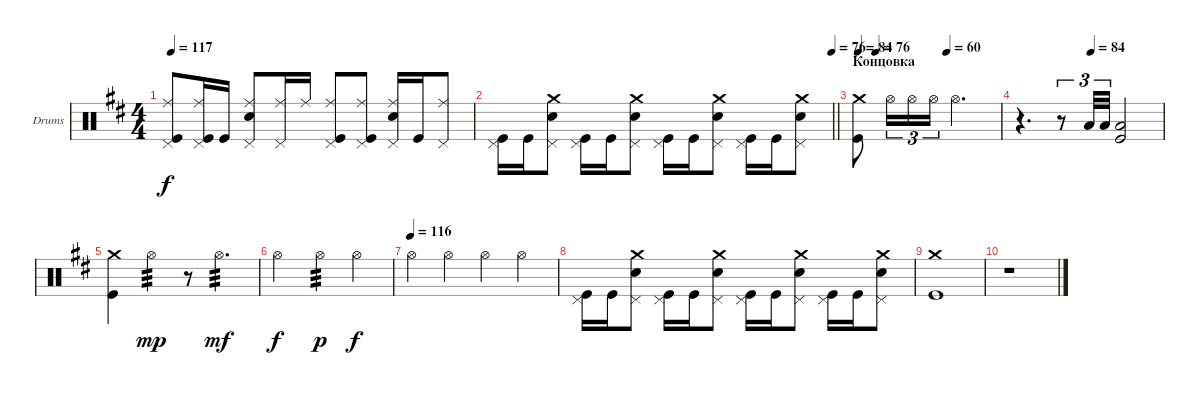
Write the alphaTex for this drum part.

\bracketExtendMode groupsimilarinstruments
\firstSystemTrackNameOrientation horizontal
\otherSystemsTrackNameOrientation horizontal
\track ("Барабаны" "Drums") {instrument percussion}
\staff {score}
\articulation defaults
\ts (4 4)
\tempo 117
\clef neutral
\ks d
("Kick (hit)" "Ride (middle)" "Pedal Hi-Hat (hit)").8{dy f} ("Kick (hit)" "Ride (middle)" "Pedal Hi-Hat (hit)").16 "Kick (hit)".16 ("Snare (hit) 2" "Ride (middle)" "Pedal Hi-Hat (hit)").8 ("Ride (middle)" "Pedal Hi-Hat (hit)").16 "Ride (middle)".16 ("Kick (hit)" "Ride (middle)" "Pedal Hi-Hat (hit)").8 ("Ride (middle)" "Kick (hit)" "Pedal Hi-Hat (hit)").8 ("Snare (hit) 2" "Ride (middle)" "Pedal Hi-Hat (hit)").16 "Kick (hit)".16 ("Ride (middle)" "Pedal Hi-Hat (hit)").8 |
\tempo (76 1)
\barLineRight lightlight
("Pedal Hi-Hat (hit)" "Kick (hit)").16 "Kick (hit)".16 ("Snare (hit) 2" "Crash medium (hit)" "Pedal Hi-Hat (hit)").8 ("Kick (hit)" "Pedal Hi-Hat (hit)").16 "Kick (hit)".16 ("Snare (hit) 2" "Crash medium (hit)" "Pedal Hi-Hat (hit)").8 ("Kick (hit)" "Pedal Hi-Hat (hit)").16 "Kick (hit)".16 ("Snare (hit) 2" "Crash medium (hit)" "Pedal Hi-Hat (hit)").8 ("Kick (hit)" "Pedal Hi-Hat (hit)").16 "Kick (hit)".16 ("Snare (hit) 2" "Crash medium (hit)" "Pedal Hi-Hat (hit)").8 |
\section ("" "Концовка")
\tempo 84
\tempo (76 0.125)
\tempo (60 0.625)
\ks bminor
("Kick (hit)" "Crash medium (hit)").8 "Hi-Hat (open)".16{tu (3 2)} "Hi-Hat (open)".16{tu (3 2)} "Hi-Hat (open)".16{tu (3 2)} "Hi-Hat (open)".2{d} |
\tempo (84 0.5)
r.4{d} r.8{tu (3 2)} "Low Tom (hit)".32{tu (3 2)} "Low Tom (hit)".32{tu (3 2)} ("Low Tom (hit)" "Kick (hit)").2 |
("Kick (hit)" "Crash medium (hit)").4 "Hi-Hat (open)".4{tp 3 dy mp} r.8 "Hi-Hat (open)".4{d tp 3 dy mf} |
"Hi-Hat (open)".2{dy f} "Hi-Hat (open)".4{tp 3 dy p} "Hi-Hat (open)".4{dy f} |
\tempo (116)
"Hi-Hat (open)".4 "Hi-Hat (open)".4 "Hi-Hat (open)".4 "Hi-Hat (open)".4 |
("Pedal Hi-Hat (hit)" "Kick (hit)").16 "Kick (hit)".16 ("Snare (hit) 2" "Crash medium (hit)" "Pedal Hi-Hat (hit)").8 ("Kick (hit)" "Pedal Hi-Hat (hit)").16 "Kick (hit)".16 ("Snare (hit) 2" "Crash medium (hit)" "Pedal Hi-Hat (hit)").8 ("Kick (hit)" "Pedal Hi-Hat (hit)").16 "Kick (hit)".16 ("Snare (hit) 2" "Crash medium (hit)" "Pedal Hi-Hat (hit)").8 ("Kick (hit)" "Pedal Hi-Hat (hit)").16 "Kick (hit)".16 ("Snare (hit) 2" "Crash medium (hit)" "Pedal Hi-Hat (hit)").8 |
("Kick (hit)" "Crash medium (hit)").1 |
r.1
